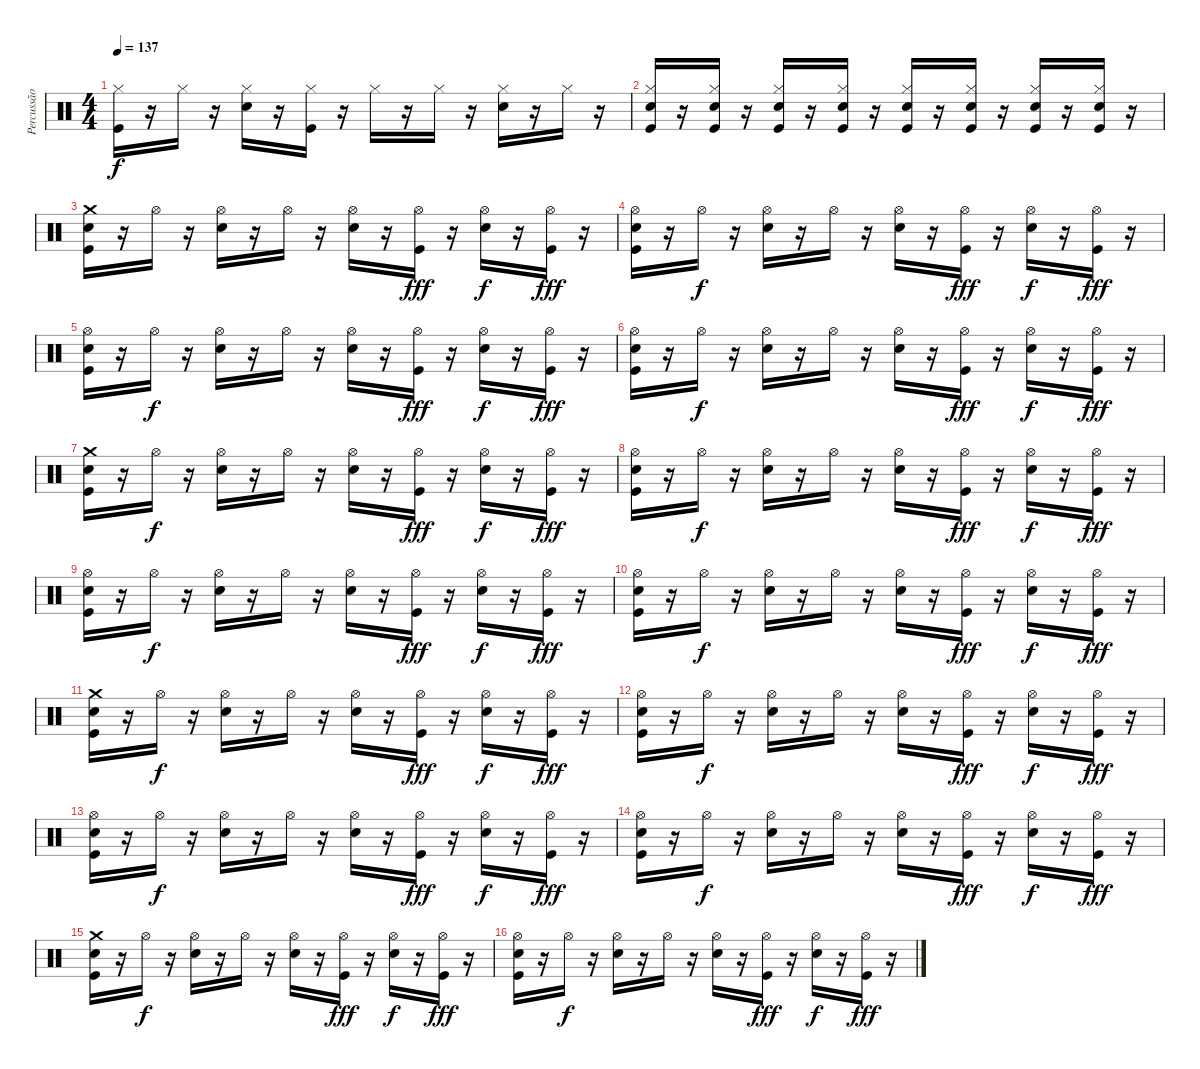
\track ("Percussão" "Percussão") {instrument percussion}
\staff {score}
\articulation defaults
\ts (4 4)
\tempo 137
\clef neutral
\ks c
("Kick (hit)" "Hi-Hat (closed)").16{dy f} r.16 "Hi-Hat (closed)".16 r.16 ("Hi-Hat (closed)" "Snare (hit) 2").16 r.16 ("Kick (hit)" "Hi-Hat (closed)").16 r.16 "Hi-Hat (closed)".16 r.16 "Hi-Hat (closed)".16 r.16 ("Snare (hit) 2" "Hi-Hat (closed)").16 r.16 "Hi-Hat (closed)".16 r.16 |
("Snare (hit) 2" "Kick (hit)" "Hi-Hat (closed)").16 r.16 ("Hi-Hat (closed)" "Snare (hit) 2" "Kick (hit)").16 r.16 ("Hi-Hat (closed)" "Snare (hit) 2" "Kick (hit)").16 r.16 ("Snare (hit) 2" "Kick (hit)" "Hi-Hat (closed)").16 r.16 ("Hi-Hat (closed)" "Snare (hit) 2" "Kick (hit)").16 r.16 ("Hi-Hat (closed)" "Snare (hit) 2" "Kick (hit)").16 r.16 ("Snare (hit) 2" "Kick (hit)" "Hi-Hat (closed)").16 r.16 ("Hi-Hat (closed)" "Snare (hit) 2" "Kick (hit)").16 r.16 |
("Crash medium (hit)" "Snare (hit) 2" "Kick (hit)").16 r.16 "Hi-Hat (open)".16 r.16 ("Snare (hit) 2" "Hi-Hat (open)").16 r.16 "Hi-Hat (open)".16 r.16 ("Snare (hit) 2" "Hi-Hat (open)").16 r.16 ("Kick (hit)" "Hi-Hat (open)").16{dy fff} r.16 ("Hi-Hat (open)" "Snare (hit) 2").16{dy f} r.16 ("Hi-Hat (open)" "Kick (hit)").16{dy fff} r.16 |
("Hi-Hat (open)" "Snare (hit) 2" "Kick (hit)").16 r.16 "Hi-Hat (open)".16{dy f} r.16 ("Snare (hit) 2" "Hi-Hat (open)").16 r.16 "Hi-Hat (open)".16 r.16 ("Snare (hit) 2" "Hi-Hat (open)").16 r.16 ("Kick (hit)" "Hi-Hat (open)").16{dy fff} r.16 ("Hi-Hat (open)" "Snare (hit) 2").16{dy f} r.16 ("Hi-Hat (open)" "Kick (hit)").16{dy fff} r.16 |
("Hi-Hat (open)" "Snare (hit) 2" "Kick (hit)").16 r.16 "Hi-Hat (open)".16{dy f} r.16 ("Snare (hit) 2" "Hi-Hat (open)").16 r.16 "Hi-Hat (open)".16 r.16 ("Snare (hit) 2" "Hi-Hat (open)").16 r.16 ("Kick (hit)" "Hi-Hat (open)").16{dy fff} r.16 ("Hi-Hat (open)" "Snare (hit) 2").16{dy f} r.16 ("Hi-Hat (open)" "Kick (hit)").16{dy fff} r.16 |
("Hi-Hat (open)" "Snare (hit) 2" "Kick (hit)").16 r.16 "Hi-Hat (open)".16{dy f} r.16 ("Snare (hit) 2" "Hi-Hat (open)").16 r.16 "Hi-Hat (open)".16 r.16 ("Snare (hit) 2" "Hi-Hat (open)").16 r.16 ("Kick (hit)" "Hi-Hat (open)").16{dy fff} r.16 ("Hi-Hat (open)" "Snare (hit) 2").16{dy f} r.16 ("Hi-Hat (open)" "Kick (hit)").16{dy fff} r.16 |
("Crash medium (hit)" "Snare (hit) 2" "Kick (hit)").16 r.16 "Hi-Hat (open)".16{dy f} r.16 ("Snare (hit) 2" "Hi-Hat (open)").16 r.16 "Hi-Hat (open)".16 r.16 ("Snare (hit) 2" "Hi-Hat (open)").16 r.16 ("Kick (hit)" "Hi-Hat (open)").16{dy fff} r.16 ("Hi-Hat (open)" "Snare (hit) 2").16{dy f} r.16 ("Hi-Hat (open)" "Kick (hit)").16{dy fff} r.16 |
("Hi-Hat (open)" "Snare (hit) 2" "Kick (hit)").16 r.16 "Hi-Hat (open)".16{dy f} r.16 ("Snare (hit) 2" "Hi-Hat (open)").16 r.16 "Hi-Hat (open)".16 r.16 ("Snare (hit) 2" "Hi-Hat (open)").16 r.16 ("Kick (hit)" "Hi-Hat (open)").16{dy fff} r.16 ("Hi-Hat (open)" "Snare (hit) 2").16{dy f} r.16 ("Hi-Hat (open)" "Kick (hit)").16{dy fff} r.16 |
("Hi-Hat (open)" "Snare (hit) 2" "Kick (hit)").16 r.16 "Hi-Hat (open)".16{dy f} r.16 ("Snare (hit) 2" "Hi-Hat (open)").16 r.16 "Hi-Hat (open)".16 r.16 ("Snare (hit) 2" "Hi-Hat (open)").16 r.16 ("Kick (hit)" "Hi-Hat (open)").16{dy fff} r.16 ("Hi-Hat (open)" "Snare (hit) 2").16{dy f} r.16 ("Hi-Hat (open)" "Kick (hit)").16{dy fff} r.16 |
("Hi-Hat (open)" "Snare (hit) 2" "Kick (hit)").16 r.16 "Hi-Hat (open)".16{dy f} r.16 ("Snare (hit) 2" "Hi-Hat (open)").16 r.16 "Hi-Hat (open)".16 r.16 ("Snare (hit) 2" "Hi-Hat (open)").16 r.16 ("Kick (hit)" "Hi-Hat (open)").16{dy fff} r.16 ("Hi-Hat (open)" "Snare (hit) 2").16{dy f} r.16 ("Hi-Hat (open)" "Kick (hit)").16{dy fff} r.16 |
("Crash medium (hit)" "Snare (hit) 2" "Kick (hit)").16 r.16 "Hi-Hat (open)".16{dy f} r.16 ("Snare (hit) 2" "Hi-Hat (open)").16 r.16 "Hi-Hat (open)".16 r.16 ("Snare (hit) 2" "Hi-Hat (open)").16 r.16 ("Kick (hit)" "Hi-Hat (open)").16{dy fff} r.16 ("Hi-Hat (open)" "Snare (hit) 2").16{dy f} r.16 ("Hi-Hat (open)" "Kick (hit)").16{dy fff} r.16 |
("Hi-Hat (open)" "Snare (hit) 2" "Kick (hit)").16 r.16 "Hi-Hat (open)".16{dy f} r.16 ("Snare (hit) 2" "Hi-Hat (open)").16 r.16 "Hi-Hat (open)".16 r.16 ("Snare (hit) 2" "Hi-Hat (open)").16 r.16 ("Kick (hit)" "Hi-Hat (open)").16{dy fff} r.16 ("Hi-Hat (open)" "Snare (hit) 2").16{dy f} r.16 ("Hi-Hat (open)" "Kick (hit)").16{dy fff} r.16 |
("Hi-Hat (open)" "Snare (hit) 2" "Kick (hit)").16 r.16 "Hi-Hat (open)".16{dy f} r.16 ("Snare (hit) 2" "Hi-Hat (open)").16 r.16 "Hi-Hat (open)".16 r.16 ("Snare (hit) 2" "Hi-Hat (open)").16 r.16 ("Kick (hit)" "Hi-Hat (open)").16{dy fff} r.16 ("Hi-Hat (open)" "Snare (hit) 2").16{dy f} r.16 ("Hi-Hat (open)" "Kick (hit)").16{dy fff} r.16 |
("Hi-Hat (open)" "Snare (hit) 2" "Kick (hit)").16 r.16 "Hi-Hat (open)".16{dy f} r.16 ("Snare (hit) 2" "Hi-Hat (open)").16 r.16 "Hi-Hat (open)".16 r.16 ("Snare (hit) 2" "Hi-Hat (open)").16 r.16 ("Kick (hit)" "Hi-Hat (open)").16{dy fff} r.16 ("Hi-Hat (open)" "Snare (hit) 2").16{dy f} r.16 ("Hi-Hat (open)" "Kick (hit)").16{dy fff} r.16 |
("Crash medium (hit)" "Snare (hit) 2" "Kick (hit)").16 r.16 "Hi-Hat (open)".16{dy f} r.16 ("Snare (hit) 2" "Hi-Hat (open)").16 r.16 "Hi-Hat (open)".16 r.16 ("Snare (hit) 2" "Hi-Hat (open)").16 r.16 ("Kick (hit)" "Hi-Hat (open)").16{dy fff} r.16 ("Hi-Hat (open)" "Snare (hit) 2").16{dy f} r.16 ("Hi-Hat (open)" "Kick (hit)").16{dy fff} r.16 |
("Hi-Hat (open)" "Snare (hit) 2" "Kick (hit)").16 r.16 "Hi-Hat (open)".16{dy f} r.16 ("Snare (hit) 2" "Hi-Hat (open)").16 r.16 "Hi-Hat (open)".16 r.16 ("Snare (hit) 2" "Hi-Hat (open)").16 r.16 ("Kick (hit)" "Hi-Hat (open)").16{dy fff} r.16 ("Hi-Hat (open)" "Snare (hit) 2").16{dy f} r.16 ("Hi-Hat (open)" "Kick (hit)").16{dy fff} r.16
